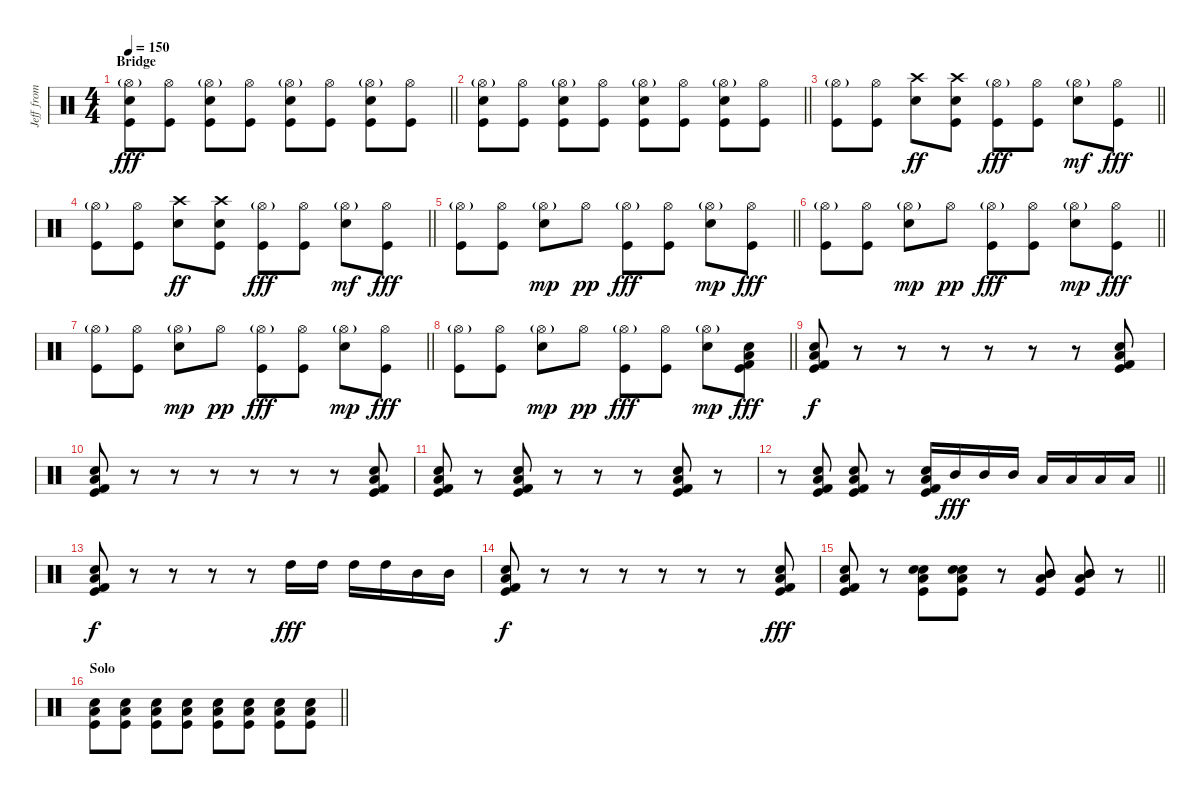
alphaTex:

\track ("Jeff from Chelsea - Drum" "Jeff from ") {instrument percussion bank 27}
\staff {score}
\articulation defaults
\ts (4 4)
\section ("" "Bridge")
\tempo 150
\clef neutral
\barLineRight lightlight
\ks c
("Hi-Hat (open)"{g} "Snare (hit) 2" "Kick (hit)").8{dy fff} ("Hi-Hat (open)" "Kick (hit)").8 ("Hi-Hat (open)"{g} "Snare (hit) 2" "Kick (hit)").8 ("Hi-Hat (open)" "Kick (hit)").8 ("Hi-Hat (open)"{g} "Snare (hit) 2" "Kick (hit)").8 ("Hi-Hat (open)" "Kick (hit)").8 ("Hi-Hat (open)"{g} "Snare (hit) 2" "Kick (hit)").8 ("Hi-Hat (open)" "Kick (hit)").8 |
\barLineRight lightlight
("Hi-Hat (open)"{g} "Snare (hit) 2" "Kick (hit)").8 ("Hi-Hat (open)" "Kick (hit)").8 ("Hi-Hat (open)"{g} "Snare (hit) 2" "Kick (hit)").8 ("Hi-Hat (open)" "Kick (hit)").8 ("Hi-Hat (open)"{g} "Snare (hit) 2" "Kick (hit)").8 ("Hi-Hat (open)" "Kick (hit)").8 ("Hi-Hat (open)"{g} "Snare (hit) 2" "Kick (hit)").8 ("Hi-Hat (open)" "Kick (hit)").8 |
\barLineRight lightlight
("Hi-Hat (open)"{g} "Kick (hit)").8 ("Hi-Hat (open)" "Kick (hit)").8 ("Crash high (hit)" "Snare (hit) 2").8{dy ff} ("Crash high (hit)" "Snare (hit) 2" "Kick (hit)").8 ("Hi-Hat (open)"{g} "Kick (hit)").8{dy fff} ("Hi-Hat (open)" "Kick (hit)").8 ("Hi-Hat (open)"{g} "Snare (hit) 2").8{dy mf} ("Hi-Hat (open)" "Kick (hit)").8{dy fff} |
\barLineRight lightlight
("Hi-Hat (open)"{g} "Kick (hit)").8 ("Hi-Hat (open)" "Kick (hit)").8 ("Crash high (hit)" "Snare (hit) 2").8{dy ff} ("Crash high (hit)" "Snare (hit) 2" "Kick (hit)").8 ("Hi-Hat (open)"{g} "Kick (hit)").8{dy fff} ("Hi-Hat (open)" "Kick (hit)").8 ("Hi-Hat (open)"{g} "Snare (hit) 2").8{dy mf} ("Hi-Hat (open)" "Kick (hit)").8{dy fff} |
\barLineRight lightlight
("Hi-Hat (open)"{g} "Kick (hit)").8 ("Hi-Hat (open)" "Kick (hit)").8 ("Hi-Hat (open)"{g} "Snare (hit) 2").8{dy mp} "Hi-Hat (open)".8{dy pp} ("Hi-Hat (open)"{g} "Kick (hit)").8{dy fff} ("Hi-Hat (open)" "Kick (hit)").8 ("Hi-Hat (open)"{g} "Snare (hit) 2").8{dy mp} ("Hi-Hat (open)" "Kick (hit)").8{dy fff} |
\barLineRight lightlight
("Hi-Hat (open)"{g} "Kick (hit)").8 ("Hi-Hat (open)" "Kick (hit)").8 ("Hi-Hat (open)"{g} "Snare (hit) 2").8{dy mp} "Hi-Hat (open)".8{dy pp} ("Hi-Hat (open)"{g} "Kick (hit)").8{dy fff} ("Hi-Hat (open)" "Kick (hit)").8 ("Hi-Hat (open)"{g} "Snare (hit) 2").8{dy mp} ("Hi-Hat (open)" "Kick (hit)").8{dy fff} |
\barLineRight lightlight
("Hi-Hat (open)"{g} "Kick (hit)").8 ("Hi-Hat (open)" "Kick (hit)").8 ("Hi-Hat (open)"{g} "Snare (hit) 2").8{dy mp} "Hi-Hat (open)".8{dy pp} ("Hi-Hat (open)"{g} "Kick (hit)").8{dy fff} ("Hi-Hat (open)" "Kick (hit)").8 ("Hi-Hat (open)"{g} "Snare (hit) 2").8{dy mp} ("Hi-Hat (open)" "Kick (hit)").8{dy fff} |
\barLineRight lightlight
("Hi-Hat (open)"{g} "Kick (hit)").8 ("Hi-Hat (open)" "Kick (hit)").8 ("Hi-Hat (open)"{g} "Snare (hit) 2").8{dy mp} "Hi-Hat (open)".8{dy pp} ("Hi-Hat (open)"{g} "Kick (hit)").8{dy fff} ("Hi-Hat (open)" "Kick (hit)").8 ("Hi-Hat (open)"{g} "Snare (hit) 2").8{dy mp} ("Low Tom (hit)" "Kick (hit) 2" "Snare (hit) 2" "Kick (hit)").8{dy fff} |
("Low Tom (hit)" "Kick (hit) 2" "Snare (hit) 2" "Kick (hit)").8{dy f} r.8 r.8 r.8 r.8 r.8 r.8 ("Low Tom (hit)" "Kick (hit) 2" "Snare (hit) 2" "Kick (hit)").8 |
("Low Tom (hit)" "Kick (hit) 2" "Snare (hit) 2" "Kick (hit)").8 r.8 r.8 r.8 r.8 r.8 r.8 ("Low Tom (hit)" "Kick (hit) 2" "Snare (hit) 2" "Kick (hit)").8 |
("Low Tom (hit)" "Kick (hit) 2" "Snare (hit) 2" "Kick (hit)").8 r.8 ("Low Tom (hit)" "Kick (hit) 2" "Snare (hit) 2" "Kick (hit)").8 r.8 r.8 r.8 ("Low Tom (hit)" "Kick (hit) 2" "Snare (hit) 2" "Kick (hit)").8 r.8 |
\barLineRight lightlight
r.8 ("Low Tom (hit)" "Kick (hit) 2" "Snare (hit) 2" "Kick (hit)").8 ("Low Tom (hit)" "Kick (hit) 2" "Snare (hit) 2" "Kick (hit)").8 r.8 ("Low Tom (hit)" "Kick (hit) 2" "Snare (hit) 2" "Kick (hit)").16 "Mid Tom (hit)".16{dy fff} "Mid Tom (hit)".16 "Mid Tom (hit)".16 "Low Tom (hit)".16 "Low Tom (hit)".16 "Low Tom (hit)".16 "Low Tom (hit)".16 |
("Low Tom (hit)" "Kick (hit) 2" "Snare (hit) 2" "Kick (hit)").8{dy f} r.8 r.8 r.8 r.8 "High Tom (hit)".16{dy fff} "High Tom (hit)".16 "High Tom (hit)".16 "High Tom (hit)".16 "Mid Tom (hit)".16 "Mid Tom (hit)".16 |
("Low Tom (hit)" "Kick (hit) 2" "Snare (hit) 2" "Kick (hit)").8{dy f} r.8 r.8 r.8 r.8 r.8 r.8 ("Low Tom (hit)" "Kick (hit) 2" "Snare (hit) 2" "Kick (hit)").8{dy fff} |
\barLineRight lightlight
("Low Tom (hit)" "Kick (hit) 2" "Snare (hit) 2" "Kick (hit)").8 r.8 ("Snare (hit) 2" "Snare (hit) 2" "Kick (hit)" "Low Tom (hit)").8 ("Snare (hit) 2" "Snare (hit) 2" "Kick (hit)" "Low Tom (hit)").8 r.8 ("Mid Tom (hit)" "Mid Tom (hit)" "Kick (hit)" "Low Tom (hit)").8 ("Mid Tom (hit)" "Mid Tom (hit)" "Kick (hit)" "Low Tom (hit)").8 r.8 |
\section ("" "Solo")
\barLineRight lightlight
("Snare (hit) 2" "Low Tom (hit)" "Kick (hit)").8 ("Snare (hit) 2" "Low Tom (hit)" "Kick (hit)").8 ("Snare (hit) 2" "Low Tom (hit)" "Kick (hit)").8 ("Snare (hit) 2" "Low Tom (hit)" "Kick (hit)").8 ("Snare (hit) 2" "Low Tom (hit)" "Kick (hit)").8 ("Snare (hit) 2" "Low Tom (hit)" "Kick (hit)").8 ("Snare (hit) 2" "Low Tom (hit)" "Kick (hit)").8 ("Snare (hit) 2" "Low Tom (hit)" "Kick (hit)").8
